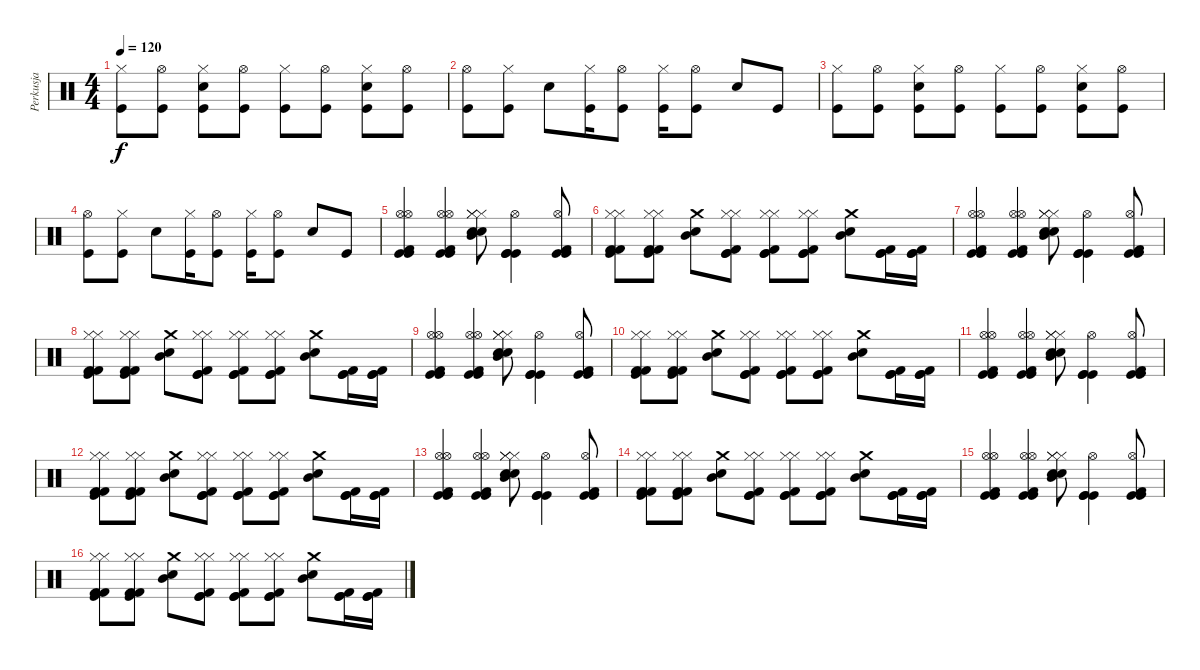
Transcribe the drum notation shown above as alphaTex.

\track ("Perkusja" "Perkusja") {instrument percussion}
\staff {score}
\articulation defaults
\ts (4 4)
\tempo 120
\clef neutral
\ks c
("Hi-Hat (closed)" "Kick (hit)").8{dy f} ("Hi-Hat (open)" "Kick (hit)").8 ("Hi-Hat (closed)" "Snare (hit) 2" "Kick (hit)").8 ("Hi-Hat (open)" "Kick (hit)").8 ("Hi-Hat (closed)" "Kick (hit)").8 ("Hi-Hat (open)" "Kick (hit)").8 ("Hi-Hat (closed)" "Snare (hit) 2" "Kick (hit)").8 ("Hi-Hat (open)" "Kick (hit)").8 |
("Hi-Hat (open)" "Kick (hit)").8 ("Hi-Hat (closed)" "Kick (hit)").8 "Snare (hit) 2".8 ("Hi-Hat (closed)" "Kick (hit)").16 ("Hi-Hat (open)" "Kick (hit)").8 ("Hi-Hat (closed)" "Kick (hit)").16 ("Hi-Hat (open)" "Kick (hit)").8 "Snare (hit) 2".8 "Kick (hit)".8 |
("Hi-Hat (closed)" "Kick (hit)").8 ("Hi-Hat (open)" "Kick (hit)").8 ("Hi-Hat (closed)" "Snare (hit) 2" "Kick (hit)").8 ("Hi-Hat (open)" "Kick (hit)").8 ("Hi-Hat (closed)" "Kick (hit)").8 ("Hi-Hat (open)" "Kick (hit)").8 ("Hi-Hat (closed)" "Snare (hit) 2" "Kick (hit)").8 ("Hi-Hat (open)" "Kick (hit)").8 |
("Hi-Hat (open)" "Kick (hit)").8 ("Hi-Hat (closed)" "Kick (hit)").8 "Snare (hit) 2".8 ("Hi-Hat (closed)" "Kick (hit)").16 ("Hi-Hat (open)" "Kick (hit)").8 ("Hi-Hat (closed)" "Kick (hit)").16 ("Hi-Hat (open)" "Kick (hit)").8 "Snare (hit) 2".8 "Kick (hit)".8 |
("Hi-Hat (open)" "Hi-Hat (open)" "Kick (hit)" "Kick (hit) 2" "Kick (hit)").4 ("Hi-Hat (open)" "Hi-Hat (open)" "Kick (hit)" "Kick (hit) 2" "Kick (hit)").4 ("Hi-Hat (closed)" "Hi-Hat (closed)" "Hi-Hat (closed)" "Snare (hit) 2" "Snare (hit) 2" "Mid Tom (hit)").8 ("Hi-Hat (open)" "Kick (hit)" "Kick (hit)" "Kick (hit)").4 ("Hi-Hat (open)" "Kick (hit)" "Kick (hit)" "Kick (hit) 2").8 |
("Hi-Hat (closed)" "Hi-Hat (closed)" "Kick (hit)" "Kick (hit) 2" "Kick (hit) 2").8 ("Hi-Hat (closed)" "Hi-Hat (closed)" "Kick (hit)" "Kick (hit) 2" "Kick (hit) 2").8 ("Crash medium (hit)" "Mid Tom (hit)" "Snare (hit) 2").8 ("Hi-Hat (closed)" "Hi-Hat (closed)" "Kick (hit)" "Kick (hit) 2" "Kick (hit)").8 ("Hi-Hat (closed)" "Hi-Hat (closed)" "Kick (hit)" "Kick (hit) 2" "Kick (hit)").8 ("Hi-Hat (closed)" "Hi-Hat (closed)" "Kick (hit)" "Kick (hit) 2" "Kick (hit)").8 ("Crash medium (hit)" "Mid Tom (hit)" "Snare (hit) 2").8 ("Kick (hit)" "Kick (hit)" "Kick (hit) 2").16 ("Kick (hit)" "Kick (hit)" "Kick (hit) 2").16 |
("Hi-Hat (open)" "Hi-Hat (open)" "Kick (hit)" "Kick (hit) 2" "Kick (hit)").4 ("Hi-Hat (open)" "Hi-Hat (open)" "Kick (hit)" "Kick (hit) 2" "Kick (hit)").4 ("Hi-Hat (closed)" "Hi-Hat (closed)" "Hi-Hat (closed)" "Snare (hit) 2" "Snare (hit) 2" "Mid Tom (hit)").8 ("Hi-Hat (open)" "Kick (hit)" "Kick (hit)" "Kick (hit)").4 ("Hi-Hat (open)" "Kick (hit)" "Kick (hit)" "Kick (hit) 2").8 |
("Hi-Hat (closed)" "Hi-Hat (closed)" "Kick (hit)" "Kick (hit) 2" "Kick (hit) 2").8 ("Hi-Hat (closed)" "Hi-Hat (closed)" "Kick (hit)" "Kick (hit) 2" "Kick (hit) 2").8 ("Crash medium (hit)" "Mid Tom (hit)" "Snare (hit) 2").8 ("Hi-Hat (closed)" "Hi-Hat (closed)" "Kick (hit)" "Kick (hit) 2" "Kick (hit)").8 ("Hi-Hat (closed)" "Hi-Hat (closed)" "Kick (hit)" "Kick (hit) 2" "Kick (hit)").8 ("Hi-Hat (closed)" "Hi-Hat (closed)" "Kick (hit)" "Kick (hit) 2" "Kick (hit)").8 ("Crash medium (hit)" "Mid Tom (hit)" "Snare (hit) 2").8 ("Kick (hit)" "Kick (hit)" "Kick (hit) 2").16 ("Kick (hit)" "Kick (hit)" "Kick (hit) 2").16 |
("Hi-Hat (open)" "Hi-Hat (open)" "Kick (hit)" "Kick (hit) 2" "Kick (hit)").4 ("Hi-Hat (open)" "Hi-Hat (open)" "Kick (hit)" "Kick (hit) 2" "Kick (hit)").4 ("Hi-Hat (closed)" "Hi-Hat (closed)" "Hi-Hat (closed)" "Snare (hit) 2" "Snare (hit) 2" "Mid Tom (hit)").8 ("Hi-Hat (open)" "Kick (hit)" "Kick (hit)" "Kick (hit)").4 ("Hi-Hat (open)" "Kick (hit)" "Kick (hit)" "Kick (hit) 2").8 |
("Hi-Hat (closed)" "Hi-Hat (closed)" "Kick (hit)" "Kick (hit) 2" "Kick (hit) 2").8 ("Hi-Hat (closed)" "Hi-Hat (closed)" "Kick (hit)" "Kick (hit) 2" "Kick (hit) 2").8 ("Crash medium (hit)" "Mid Tom (hit)" "Snare (hit) 2").8 ("Hi-Hat (closed)" "Hi-Hat (closed)" "Kick (hit)" "Kick (hit) 2" "Kick (hit)").8 ("Hi-Hat (closed)" "Hi-Hat (closed)" "Kick (hit)" "Kick (hit) 2" "Kick (hit)").8 ("Hi-Hat (closed)" "Hi-Hat (closed)" "Kick (hit)" "Kick (hit) 2" "Kick (hit)").8 ("Crash medium (hit)" "Mid Tom (hit)" "Snare (hit) 2").8 ("Kick (hit)" "Kick (hit)" "Kick (hit) 2").16 ("Kick (hit)" "Kick (hit)" "Kick (hit) 2").16 |
("Hi-Hat (open)" "Hi-Hat (open)" "Kick (hit)" "Kick (hit) 2" "Kick (hit)").4 ("Hi-Hat (open)" "Hi-Hat (open)" "Kick (hit)" "Kick (hit) 2" "Kick (hit)").4 ("Hi-Hat (closed)" "Hi-Hat (closed)" "Hi-Hat (closed)" "Snare (hit) 2" "Snare (hit) 2" "Mid Tom (hit)").8 ("Hi-Hat (open)" "Kick (hit)" "Kick (hit)" "Kick (hit)").4 ("Hi-Hat (open)" "Kick (hit)" "Kick (hit)" "Kick (hit) 2").8 |
("Hi-Hat (closed)" "Hi-Hat (closed)" "Kick (hit)" "Kick (hit) 2" "Kick (hit) 2").8 ("Hi-Hat (closed)" "Hi-Hat (closed)" "Kick (hit)" "Kick (hit) 2" "Kick (hit) 2").8 ("Crash medium (hit)" "Mid Tom (hit)" "Snare (hit) 2").8 ("Hi-Hat (closed)" "Hi-Hat (closed)" "Kick (hit)" "Kick (hit) 2" "Kick (hit)").8 ("Hi-Hat (closed)" "Hi-Hat (closed)" "Kick (hit)" "Kick (hit) 2" "Kick (hit)").8 ("Hi-Hat (closed)" "Hi-Hat (closed)" "Kick (hit)" "Kick (hit) 2" "Kick (hit)").8 ("Crash medium (hit)" "Mid Tom (hit)" "Snare (hit) 2").8 ("Kick (hit)" "Kick (hit)" "Kick (hit) 2").16 ("Kick (hit)" "Kick (hit)" "Kick (hit) 2").16 |
("Hi-Hat (open)" "Hi-Hat (open)" "Kick (hit)" "Kick (hit) 2" "Kick (hit)").4 ("Hi-Hat (open)" "Hi-Hat (open)" "Kick (hit)" "Kick (hit) 2" "Kick (hit)").4 ("Hi-Hat (closed)" "Hi-Hat (closed)" "Hi-Hat (closed)" "Snare (hit) 2" "Snare (hit) 2" "Mid Tom (hit)").8 ("Hi-Hat (open)" "Kick (hit)" "Kick (hit)" "Kick (hit)").4 ("Hi-Hat (open)" "Kick (hit)" "Kick (hit)" "Kick (hit) 2").8 |
("Hi-Hat (closed)" "Hi-Hat (closed)" "Kick (hit)" "Kick (hit) 2" "Kick (hit) 2").8 ("Hi-Hat (closed)" "Hi-Hat (closed)" "Kick (hit)" "Kick (hit) 2" "Kick (hit) 2").8 ("Crash medium (hit)" "Mid Tom (hit)" "Snare (hit) 2").8 ("Hi-Hat (closed)" "Hi-Hat (closed)" "Kick (hit)" "Kick (hit) 2" "Kick (hit)").8 ("Hi-Hat (closed)" "Hi-Hat (closed)" "Kick (hit)" "Kick (hit) 2" "Kick (hit)").8 ("Hi-Hat (closed)" "Hi-Hat (closed)" "Kick (hit)" "Kick (hit) 2" "Kick (hit)").8 ("Crash medium (hit)" "Mid Tom (hit)" "Snare (hit) 2").8 ("Kick (hit)" "Kick (hit)" "Kick (hit) 2").16 ("Kick (hit)" "Kick (hit)" "Kick (hit) 2").16 |
("Hi-Hat (open)" "Hi-Hat (open)" "Kick (hit)" "Kick (hit) 2" "Kick (hit)").4 ("Hi-Hat (open)" "Hi-Hat (open)" "Kick (hit)" "Kick (hit) 2" "Kick (hit)").4 ("Hi-Hat (closed)" "Hi-Hat (closed)" "Hi-Hat (closed)" "Snare (hit) 2" "Snare (hit) 2" "Mid Tom (hit)").8 ("Hi-Hat (open)" "Kick (hit)" "Kick (hit)" "Kick (hit)").4 ("Hi-Hat (open)" "Kick (hit)" "Kick (hit)" "Kick (hit) 2").8 |
("Hi-Hat (closed)" "Hi-Hat (closed)" "Kick (hit)" "Kick (hit) 2" "Kick (hit) 2").8 ("Hi-Hat (closed)" "Hi-Hat (closed)" "Kick (hit)" "Kick (hit) 2" "Kick (hit) 2").8 ("Crash medium (hit)" "Mid Tom (hit)" "Snare (hit) 2").8 ("Hi-Hat (closed)" "Hi-Hat (closed)" "Kick (hit)" "Kick (hit) 2" "Kick (hit)").8 ("Hi-Hat (closed)" "Hi-Hat (closed)" "Kick (hit)" "Kick (hit) 2" "Kick (hit)").8 ("Hi-Hat (closed)" "Hi-Hat (closed)" "Kick (hit)" "Kick (hit) 2" "Kick (hit)").8 ("Crash medium (hit)" "Mid Tom (hit)" "Snare (hit) 2").8 ("Kick (hit)" "Kick (hit)" "Kick (hit) 2").16 ("Kick (hit)" "Kick (hit)" "Kick (hit) 2").16
